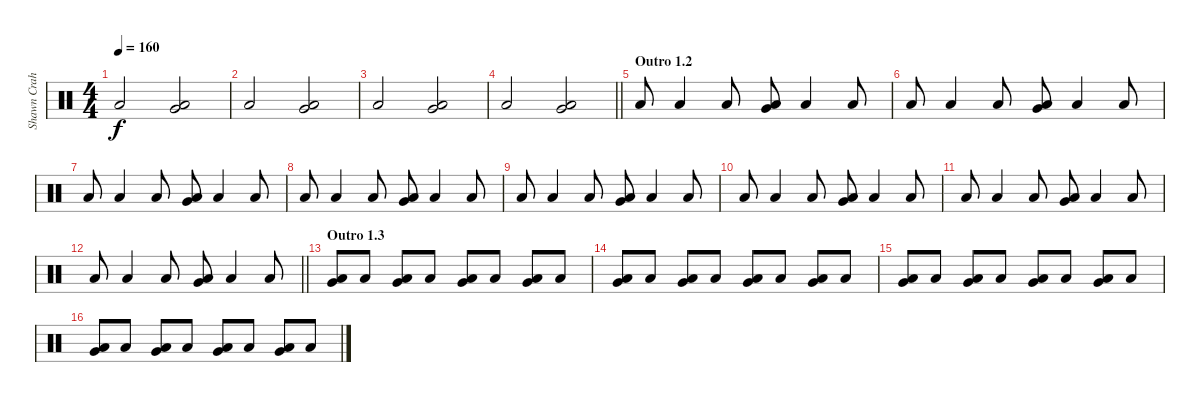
\track ("Shawn Crahan" "Shawn Crah") {instrument percussion}
\staff {score}
\articulation defaults
\ts (4 4)
\tempo 160
\clef neutral
\ks c "Low Floor Tom (hit)".2{dy f}
("Very Low Tom (hit)" "Low Floor Tom (hit)").2 |
"Low Floor Tom (hit)".2 ("Very Low Tom (hit)" "Low Floor Tom (hit)").2 |
"Low Floor Tom (hit)".2 ("Very Low Tom (hit)" "Low Floor Tom (hit)").2 |
\barLineRight lightlight "Low Floor Tom (hit)".2
("Very Low Tom (hit)" "Low Floor Tom (hit)").2 |
\section ("" "Outro 1.2")
"Low Floor Tom (hit)".8 "Low Floor Tom (hit)".4 "Low Floor Tom (hit)".8 ("Very Low Tom (hit)" "Low Floor Tom (hit)").8 "Low Floor Tom (hit)".4 "Low Floor Tom (hit)".8 |
"Low Floor Tom (hit)".8 "Low Floor Tom (hit)".4 "Low Floor Tom (hit)".8 ("Very Low Tom (hit)" "Low Floor Tom (hit)").8 "Low Floor Tom (hit)".4 "Low Floor Tom (hit)".8 |
"Low Floor Tom (hit)".8 "Low Floor Tom (hit)".4 "Low Floor Tom (hit)".8 ("Very Low Tom (hit)" "Low Floor Tom (hit)").8 "Low Floor Tom (hit)".4 "Low Floor Tom (hit)".8 |
"Low Floor Tom (hit)".8 "Low Floor Tom (hit)".4 "Low Floor Tom (hit)".8 ("Very Low Tom (hit)" "Low Floor Tom (hit)").8 "Low Floor Tom (hit)".4 "Low Floor Tom (hit)".8 |
"Low Floor Tom (hit)".8 "Low Floor Tom (hit)".4 "Low Floor Tom (hit)".8 ("Very Low Tom (hit)" "Low Floor Tom (hit)").8 "Low Floor Tom (hit)".4 "Low Floor Tom (hit)".8 |
"Low Floor Tom (hit)".8 "Low Floor Tom (hit)".4 "Low Floor Tom (hit)".8 ("Very Low Tom (hit)" "Low Floor Tom (hit)").8 "Low Floor Tom (hit)".4 "Low Floor Tom (hit)".8 |
"Low Floor Tom (hit)".8 "Low Floor Tom (hit)".4 "Low Floor Tom (hit)".8 ("Very Low Tom (hit)" "Low Floor Tom (hit)").8 "Low Floor Tom (hit)".4 "Low Floor Tom (hit)".8 |
\barLineRight lightlight "Low Floor Tom (hit)".8 "Low Floor Tom (hit)".4 "Low Floor Tom (hit)".8
("Very Low Tom (hit)" "Low Floor Tom (hit)").8 "Low Floor Tom (hit)".4 "Low Floor Tom (hit)".8 |
\section ("" "Outro 1.3")
("Very Low Tom (hit)" "Low Floor Tom (hit)").8 "Low Floor Tom (hit)".8 ("Very Low Tom (hit)" "Low Floor Tom (hit)").8 "Low Floor Tom (hit)".8 ("Very Low Tom (hit)" "Low Floor Tom (hit)").8 "Low Floor Tom (hit)".8 ("Very Low Tom (hit)" "Low Floor Tom (hit)").8 "Low Floor Tom (hit)".8 |
("Very Low Tom (hit)" "Low Floor Tom (hit)").8 "Low Floor Tom (hit)".8 ("Very Low Tom (hit)" "Low Floor Tom (hit)").8 "Low Floor Tom (hit)".8 ("Very Low Tom (hit)" "Low Floor Tom (hit)").8 "Low Floor Tom (hit)".8 ("Very Low Tom (hit)" "Low Floor Tom (hit)").8 "Low Floor Tom (hit)".8 |
("Very Low Tom (hit)" "Low Floor Tom (hit)").8 "Low Floor Tom (hit)".8 ("Very Low Tom (hit)" "Low Floor Tom (hit)").8 "Low Floor Tom (hit)".8 ("Very Low Tom (hit)" "Low Floor Tom (hit)").8 "Low Floor Tom (hit)".8 ("Very Low Tom (hit)" "Low Floor Tom (hit)").8 "Low Floor Tom (hit)".8 |
("Very Low Tom (hit)" "Low Floor Tom (hit)").8 "Low Floor Tom (hit)".8 ("Very Low Tom (hit)" "Low Floor Tom (hit)").8 "Low Floor Tom (hit)".8 ("Very Low Tom (hit)" "Low Floor Tom (hit)").8 "Low Floor Tom (hit)".8 ("Very Low Tom (hit)" "Low Floor Tom (hit)").8 "Low Floor Tom (hit)".8
